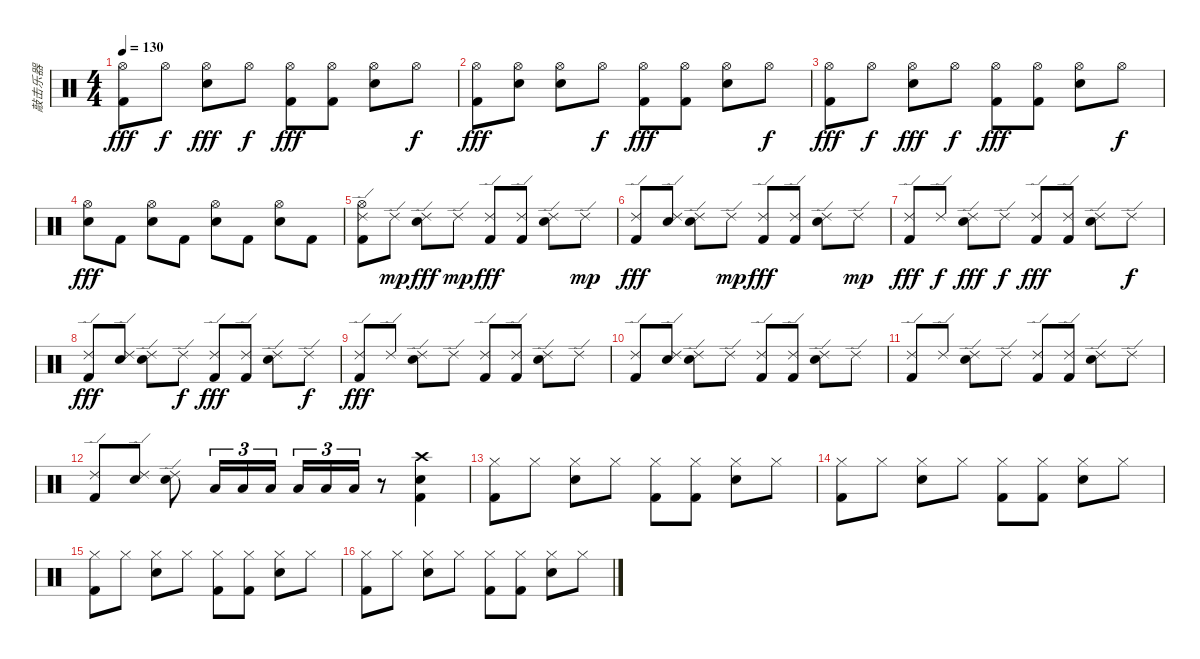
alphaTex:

\track ("敲击乐器" "敲击乐器") {instrument percussion}
\staff {score}
\articulation defaults
\ts (4 4)
\tempo 130
\clef neutral
\ks c
("Hi-Hat (open)" "Kick (hit) 2").8{dy fff} "Hi-Hat (open)".8{dy f} ("Hi-Hat (open)" "Electric Snare (hit)").8{dy fff} "Hi-Hat (open)".8{dy f} ("Hi-Hat (open)" "Kick (hit) 2").8{dy fff} ("Hi-Hat (open)" "Kick (hit) 2").8 ("Hi-Hat (open)" "Electric Snare (hit)").8 "Hi-Hat (open)".8{dy f} |
("Hi-Hat (open)" "Kick (hit) 2").8{dy fff} ("Hi-Hat (open)" "Electric Snare (hit)").8 ("Hi-Hat (open)" "Electric Snare (hit)").8 "Hi-Hat (open)".8{dy f} ("Hi-Hat (open)" "Kick (hit) 2").8{dy fff} ("Hi-Hat (open)" "Kick (hit) 2").8 ("Hi-Hat (open)" "Electric Snare (hit)").8 "Hi-Hat (open)".8{dy f} |
("Hi-Hat (open)" "Kick (hit) 2").8{dy fff} "Hi-Hat (open)".8{dy f} ("Hi-Hat (open)" "Electric Snare (hit)").8{dy fff} "Hi-Hat (open)".8{dy f} ("Hi-Hat (open)" "Kick (hit) 2").8{dy fff} ("Hi-Hat (open)" "Kick (hit) 2").8 ("Hi-Hat (open)" "Electric Snare (hit)").8 "Hi-Hat (open)".8{dy f} |
("Hi-Hat (open)" "Electric Snare (hit)").8{dy fff} "Kick (hit) 2".8 ("Hi-Hat (open)" "Electric Snare (hit)").8 "Kick (hit) 2".8 ("Hi-Hat (open)" "Electric Snare (hit)").8 "Kick (hit) 2".8 ("Hi-Hat (open)" "Electric Snare (hit)").8 "Kick (hit) 2".8 |
("Ride (edge) 2" "Hi-Hat (open)" "Kick (hit) 2").8 "Ride (edge) 2".8{dy mp} ("Ride (edge) 2" "Electric Snare (hit)").8{dy fff} "Ride (edge) 2".8{dy mp} ("Ride (edge) 2" "Kick (hit) 2").8{dy fff} ("Ride (edge) 2" "Kick (hit) 2").8 ("Ride (edge) 2" "Electric Snare (hit)").8 "Ride (edge) 2".8{dy mp} |
("Ride (edge) 2" "Kick (hit) 2").8{dy fff} ("Ride (edge) 2" "Electric Snare (hit)").8 ("Ride (edge) 2" "Electric Snare (hit)").8 "Ride (edge) 2".8{dy mp} ("Ride (edge) 2" "Kick (hit) 2").8{dy fff} ("Ride (edge) 2" "Kick (hit) 2").8 ("Ride (edge) 2" "Electric Snare (hit)").8 "Ride (edge) 2".8{dy mp} |
("Ride (edge) 2" "Kick (hit) 2").8{dy fff} "Ride (edge) 2".8{dy f} ("Ride (edge) 2" "Electric Snare (hit)").8{dy fff} "Ride (edge) 2".8{dy f} ("Ride (edge) 2" "Kick (hit) 2").8{dy fff} ("Ride (edge) 2" "Kick (hit) 2").8 ("Ride (edge) 2" "Electric Snare (hit)").8 "Ride (edge) 2".8{dy f} |
("Ride (edge) 2" "Kick (hit) 2").8{dy fff} ("Ride (edge) 2" "Electric Snare (hit)").8 ("Ride (edge) 2" "Electric Snare (hit)").8 "Ride (edge) 2".8{dy f} ("Ride (edge) 2" "Kick (hit) 2").8{dy fff} ("Ride (edge) 2" "Kick (hit) 2").8 ("Ride (edge) 2" "Electric Snare (hit)").8 "Ride (edge) 2".8{dy f} |
("Ride (edge) 2" "Kick (hit) 2").8{dy fff} "Ride (edge) 2".8 ("Ride (edge) 2" "Electric Snare (hit)").8 "Ride (edge) 2".8 ("Ride (edge) 2" "Kick (hit) 2").8 ("Ride (edge) 2" "Kick (hit) 2").8 ("Ride (edge) 2" "Electric Snare (hit)").8 "Ride (edge) 2".8 |
("Ride (edge) 2" "Kick (hit) 2").8 ("Ride (edge) 2" "Electric Snare (hit)").8 ("Ride (edge) 2" "Electric Snare (hit)").8 "Ride (edge) 2".8 ("Ride (edge) 2" "Kick (hit) 2").8 ("Ride (edge) 2" "Kick (hit) 2").8 ("Ride (edge) 2" "Electric Snare (hit)").8 "Ride (edge) 2".8 |
("Ride (edge) 2" "Kick (hit) 2").8 "Ride (edge) 2".8 ("Ride (edge) 2" "Electric Snare (hit)").8 "Ride (edge) 2".8 ("Ride (edge) 2" "Kick (hit) 2").8 ("Ride (edge) 2" "Kick (hit) 2").8 ("Ride (edge) 2" "Electric Snare (hit)").8 "Ride (edge) 2".8 |
("Ride (edge) 2" "Kick (hit) 2").8 ("Ride (edge) 2" "Electric Snare (hit)").8 ("Ride (edge) 2" "Electric Snare (hit)").8 "Low Tom (hit)".16{tu (3 2)} "Low Tom (hit)".16{tu (3 2)} "Low Tom (hit)".16{tu (3 2)} "Low Tom (hit)".16{tu (3 2)} "Low Tom (hit)".16{tu (3 2)} "Low Tom (hit)".16{tu (3 2)} r.8 ("Crash high (hit)" "Electric Snare (hit)" "Kick (hit) 2").4 |
("Hi-Hat (closed)" "Kick (hit) 2").8 "Hi-Hat (closed)".8 ("Hi-Hat (closed)" "Electric Snare (hit)").8 "Hi-Hat (closed)".8 ("Hi-Hat (closed)" "Kick (hit) 2").8 ("Hi-Hat (closed)" "Kick (hit) 2").8 ("Hi-Hat (closed)" "Electric Snare (hit)").8 "Hi-Hat (closed)".8 |
("Hi-Hat (closed)" "Kick (hit) 2").8 "Hi-Hat (closed)".8 ("Hi-Hat (closed)" "Electric Snare (hit)").8 "Hi-Hat (closed)".8 ("Hi-Hat (closed)" "Kick (hit) 2").8 ("Hi-Hat (closed)" "Kick (hit) 2").8 ("Hi-Hat (closed)" "Electric Snare (hit)").8 "Hi-Hat (closed)".8 |
("Hi-Hat (closed)" "Kick (hit) 2").8 "Hi-Hat (closed)".8 ("Hi-Hat (closed)" "Electric Snare (hit)").8 "Hi-Hat (closed)".8 ("Hi-Hat (closed)" "Kick (hit) 2").8 ("Hi-Hat (closed)" "Kick (hit) 2").8 ("Hi-Hat (closed)" "Electric Snare (hit)").8 "Hi-Hat (closed)".8 |
("Hi-Hat (closed)" "Kick (hit) 2").8 "Hi-Hat (closed)".8 ("Hi-Hat (closed)" "Electric Snare (hit)").8 "Hi-Hat (closed)".8 ("Hi-Hat (closed)" "Kick (hit) 2").8 ("Hi-Hat (closed)" "Kick (hit) 2").8 ("Hi-Hat (closed)" "Electric Snare (hit)").8 "Hi-Hat (closed)".8
